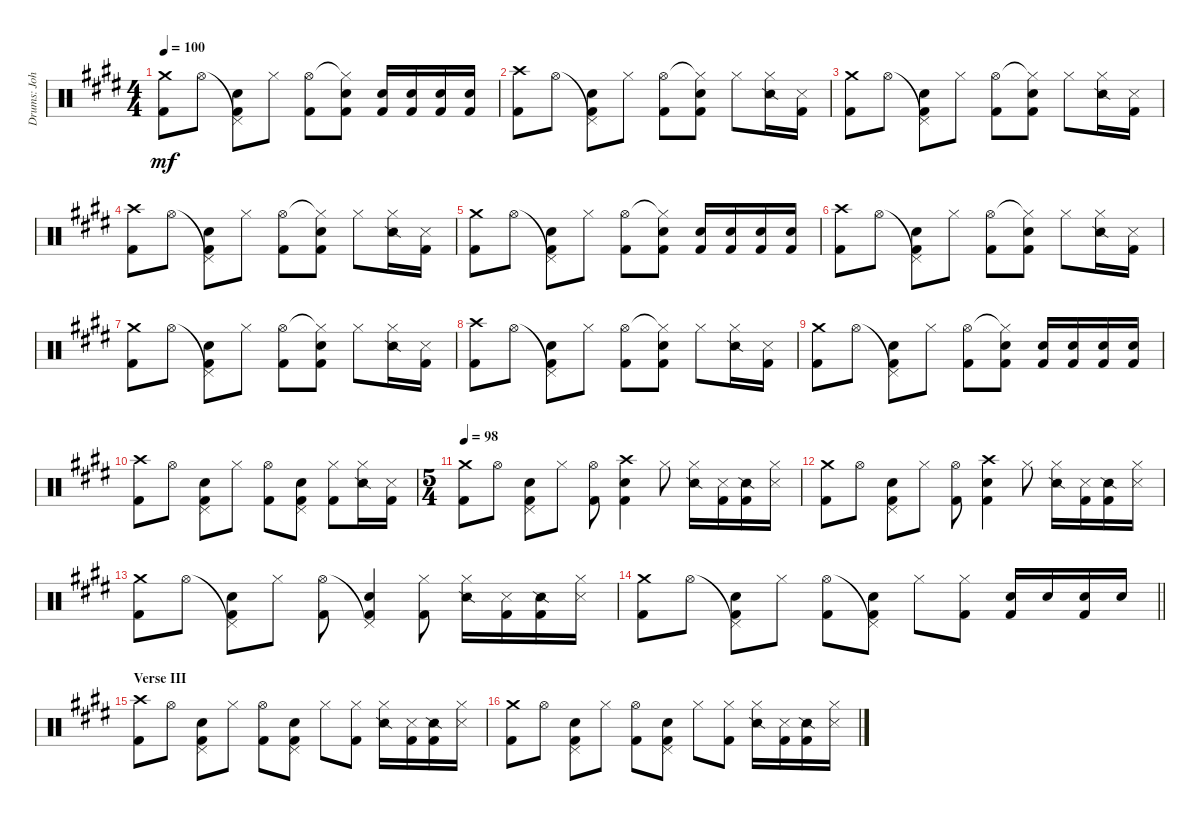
\track ("Drums: John" "Drums: Joh") {instrument percussion}
\staff {score}
\articulation defaults
\ts (4 4)
\tempo 100
\clef neutral
\ks e
("Crash medium (hit)" "Kick (hit) 2").8{dy mf} "Hi-Hat (open)".8 ("Pedal Hi-Hat (hit)"{t} "Snare (hit) 2" "Kick (hit) 2").8 "Hi-Hat (closed)".8 ("Hi-Hat (open)" "Kick (hit) 2").8 ("Hi-Hat (closed)"{t} "Snare (hit) 2" "Kick (hit) 2").8 ("Electric Snare (hit)" "Kick (hit) 2").16 ("Electric Snare (hit)" "Kick (hit) 2").16 ("Electric Snare (hit)" "Kick (hit) 2").16 ("Electric Snare (hit)" "Kick (hit) 2").16 |
("Crash high (hit)" "Kick (hit) 2").8 "Hi-Hat (open)".8 ("Pedal Hi-Hat (hit)"{t} "Snare (hit) 2" "Kick (hit) 2").8 "Hi-Hat (closed)".8 ("Hi-Hat (open)" "Kick (hit) 2").8 ("Hi-Hat (closed)"{t} "Snare (hit) 2" "Kick (hit) 2").8 "Hi-Hat (closed)".8 ("Hi-Hat (closed)" "Snare (side stick) 2").16 ("Kick (hit) 2" "Snare (side stick) 3").16 |
("Crash medium (hit)" "Kick (hit) 2").8 "Hi-Hat (open)".8 ("Pedal Hi-Hat (hit)"{t} "Snare (hit) 2" "Kick (hit) 2").8 "Hi-Hat (closed)".8 ("Hi-Hat (open)" "Kick (hit) 2").8 ("Hi-Hat (closed)"{t} "Snare (hit) 2" "Kick (hit) 2").8 "Hi-Hat (closed)".8 ("Hi-Hat (closed)" "Snare (side stick) 2").16 ("Kick (hit) 2" "Snare (side stick) 3").16 |
("Crash high (hit)" "Kick (hit) 2").8 "Hi-Hat (open)".8 ("Pedal Hi-Hat (hit)"{t} "Snare (hit) 2" "Kick (hit) 2").8 "Hi-Hat (closed)".8 ("Hi-Hat (open)" "Kick (hit) 2").8 ("Hi-Hat (closed)"{t} "Snare (hit) 2" "Kick (hit) 2").8 "Hi-Hat (closed)".8 ("Hi-Hat (closed)" "Snare (side stick) 2").16 ("Kick (hit) 2" "Snare (side stick) 3").16 |
("Crash medium (hit)" "Kick (hit) 2").8 "Hi-Hat (open)".8 ("Pedal Hi-Hat (hit)"{t} "Snare (hit) 2" "Kick (hit) 2").8 "Hi-Hat (closed)".8 ("Hi-Hat (open)" "Kick (hit) 2").8 ("Hi-Hat (closed)"{t} "Snare (hit) 2" "Kick (hit) 2").8 ("Electric Snare (hit)" "Kick (hit) 2").16 ("Electric Snare (hit)" "Kick (hit) 2").16 ("Electric Snare (hit)" "Kick (hit) 2").16 ("Electric Snare (hit)" "Kick (hit) 2").16 |
("Crash high (hit)" "Kick (hit) 2").8 "Hi-Hat (open)".8 ("Pedal Hi-Hat (hit)"{t} "Snare (hit) 2" "Kick (hit) 2").8 "Hi-Hat (closed)".8 ("Hi-Hat (open)" "Kick (hit) 2").8 ("Hi-Hat (closed)"{t} "Snare (hit) 2" "Kick (hit) 2").8 "Hi-Hat (closed)".8 ("Hi-Hat (closed)" "Snare (side stick) 2").16 ("Kick (hit) 2" "Snare (side stick) 3").16 |
("Crash medium (hit)" "Kick (hit) 2").8 "Hi-Hat (open)".8 ("Pedal Hi-Hat (hit)"{t} "Snare (hit) 2" "Kick (hit) 2").8 "Hi-Hat (closed)".8 ("Hi-Hat (open)" "Kick (hit) 2").8 ("Hi-Hat (closed)"{t} "Snare (hit) 2" "Kick (hit) 2").8 "Hi-Hat (closed)".8 ("Hi-Hat (closed)" "Snare (side stick) 2").16 ("Kick (hit) 2" "Snare (side stick) 3").16 |
("Crash high (hit)" "Kick (hit) 2").8 "Hi-Hat (open)".8 ("Pedal Hi-Hat (hit)"{t} "Snare (hit) 2" "Kick (hit) 2").8 "Hi-Hat (closed)".8 ("Hi-Hat (open)" "Kick (hit) 2").8 ("Hi-Hat (closed)"{t} "Snare (hit) 2" "Kick (hit) 2").8 "Hi-Hat (closed)".8 ("Hi-Hat (closed)" "Snare (side stick) 2").16 ("Kick (hit) 2" "Snare (side stick) 3").16 |
("Crash medium (hit)" "Kick (hit) 2").8 "Hi-Hat (open)".8 ("Pedal Hi-Hat (hit)"{t} "Snare (hit) 2" "Kick (hit) 2").8 "Hi-Hat (closed)".8 ("Hi-Hat (open)" "Kick (hit) 2").8 ("Hi-Hat (closed)"{t} "Snare (hit) 2" "Kick (hit) 2").8 ("Electric Snare (hit)" "Kick (hit) 2").16 ("Electric Snare (hit)" "Kick (hit) 2").16 ("Electric Snare (hit)" "Kick (hit) 2").16 ("Electric Snare (hit)" "Kick (hit) 2").16 |
("Crash high (hit)" "Kick (hit) 2").8 "Hi-Hat (open)".8 ("Pedal Hi-Hat (hit)" "Snare (hit) 2" "Kick (hit) 2").8 "Hi-Hat (closed)".8 ("Hi-Hat (open)" "Kick (hit) 2").8 ("Pedal Hi-Hat (hit)" "Snare (hit) 2" "Kick (hit) 2").8 ("Hi-Hat (closed)" "Kick (hit) 2").8 ("Hi-Hat (closed)" "Snare (side stick) 2").16 ("Kick (hit) 2" "Snare (side stick) 3").16 |
\ts (5 4)
\tempo 98
("Crash medium (hit)" "Kick (hit) 2").8 "Hi-Hat (open)".8 ("Pedal Hi-Hat (hit)" "Snare (hit) 2" "Kick (hit) 2").8 "Hi-Hat (closed)".8 ("Hi-Hat (open)" "Kick (hit) 2").8 ("Crash high (hit)" "Snare (hit) 2" "Kick (hit) 2").4 "Hi-Hat (closed)".8 ("Hi-Hat (closed)" "Snare (side stick) 2").16 ("Kick (hit) 2" "Snare (side stick) 3").16 ("Kick (hit) 2" "Snare (side stick) 2").16 ("Hi-Hat (closed)" "Snare (side stick) 3").16 |
("Crash medium (hit)" "Kick (hit) 2").8 "Hi-Hat (open)".8 ("Pedal Hi-Hat (hit)" "Snare (hit) 2" "Kick (hit) 2").8 "Hi-Hat (closed)".8 ("Hi-Hat (open)" "Kick (hit) 2").8 ("Crash high (hit)" "Snare (hit) 2" "Kick (hit) 2").4 "Hi-Hat (closed)".8 ("Hi-Hat (closed)" "Snare (side stick) 2").16 ("Kick (hit) 2" "Snare (side stick) 3").16 ("Kick (hit) 2" "Snare (side stick) 2").16 ("Hi-Hat (closed)" "Snare (side stick) 3").16 |
("Crash medium (hit)" "Kick (hit) 2").8 "Hi-Hat (open)".8 ("Pedal Hi-Hat (hit)"{t} "Snare (hit) 2" "Kick (hit) 2").8 "Hi-Hat (closed)".8 ("Hi-Hat (open)" "Kick (hit) 2").8 ("Pedal Hi-Hat (hit)"{t} "Snare (hit) 2" "Kick (hit) 2").4 ("Hi-Hat (closed)" "Kick (hit) 2").8 ("Hi-Hat (closed)" "Snare (side stick) 2").16 ("Kick (hit) 2" "Snare (side stick) 3").16 ("Kick (hit) 2" "Snare (side stick) 2").16 ("Hi-Hat (closed)" "Snare (side stick) 3").16 |
\barLineRight lightlight
("Crash medium (hit)" "Kick (hit) 2").8 "Hi-Hat (open)".8 ("Pedal Hi-Hat (hit)"{t} "Snare (hit) 2" "Kick (hit) 2").8 "Hi-Hat (closed)".8 ("Hi-Hat (open)" "Kick (hit) 2").8 ("Pedal Hi-Hat (hit)"{t} "Snare (hit) 2" "Kick (hit) 2").8 "Hi-Hat (closed)".8 ("Hi-Hat (closed)" "Kick (hit) 2").8 ("Electric Snare (hit)" "Kick (hit) 2").16 "Electric Snare (hit)".16 ("Electric Snare (hit)" "Kick (hit) 2").16 "Electric Snare (hit)".16 |
\section ("" "Verse III")
("Crash high (hit)" "Kick (hit) 2").8 "Hi-Hat (open)".8 ("Pedal Hi-Hat (hit)" "Snare (hit) 2" "Kick (hit) 2").8 "Hi-Hat (closed)".8 ("Hi-Hat (open)" "Kick (hit) 2").8 ("Pedal Hi-Hat (hit)" "Snare (hit) 2" "Kick (hit) 2").8 "Hi-Hat (closed)".8 ("Hi-Hat (closed)" "Kick (hit) 2").8 ("Hi-Hat (closed)" "Snare (side stick) 2").16 ("Kick (hit) 2" "Snare (side stick) 3").16 ("Kick (hit) 2" "Snare (side stick) 2").16 ("Hi-Hat (closed)" "Snare (side stick) 3").16 |
("Crash medium (hit)" "Kick (hit) 2").8 "Hi-Hat (open)".8 ("Pedal Hi-Hat (hit)" "Snare (hit) 2" "Kick (hit) 2").8 "Hi-Hat (closed)".8 ("Hi-Hat (open)" "Kick (hit) 2").8 ("Pedal Hi-Hat (hit)" "Snare (hit) 2" "Kick (hit) 2").8 "Hi-Hat (closed)".8 ("Hi-Hat (closed)" "Kick (hit) 2").8 ("Hi-Hat (closed)" "Snare (side stick) 2").16 ("Kick (hit) 2" "Snare (side stick) 3").16 ("Kick (hit) 2" "Snare (side stick) 2").16 ("Hi-Hat (closed)" "Snare (side stick) 3").16
